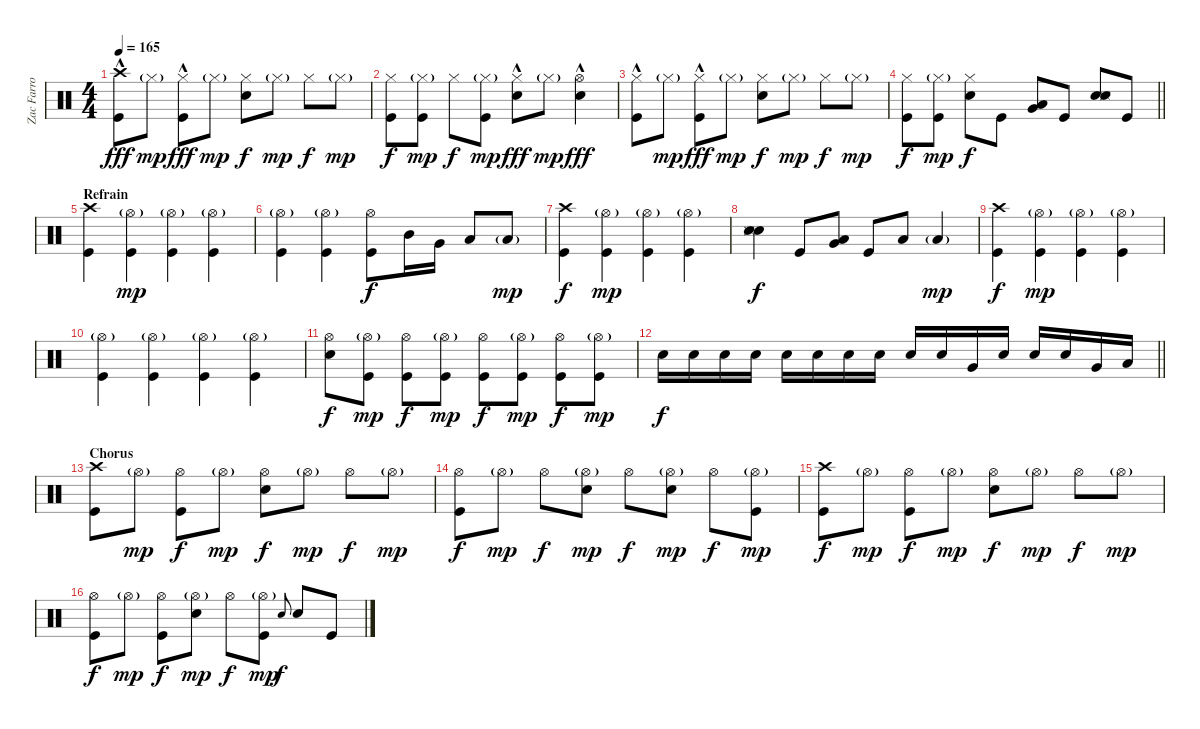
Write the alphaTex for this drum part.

\track ("Zac Farro (Drums)" "Zac Farro ") {instrument percussion}
\staff {score}
\articulation defaults
\ts (4 4)
\tempo 165
\clef neutral
\ks c
("Crash high (hit)" "Kick (hit)"{hac}).8{dy fff} "Hi-Hat (closed)"{g}.8{dy mp} ("Hi-Hat (closed)" "Kick (hit)"{hac}).8{dy fff} "Hi-Hat (closed)"{g}.8{dy mp} ("Hi-Hat (closed)" "Electric Snare (hit)").8{dy f} "Hi-Hat (closed)"{g}.8{dy mp} "Hi-Hat (closed)".8{dy f} "Hi-Hat (closed)"{g}.8{dy mp} |
("Hi-Hat (closed)" "Kick (hit)").8{dy f} ("Hi-Hat (closed)"{g} "Kick (hit)").8{dy mp} "Hi-Hat (closed)".8{dy f} ("Hi-Hat (closed)"{g} "Kick (hit)").8{dy mp} ("Hi-Hat (closed)" "Electric Snare (hit)"{hac}).8{dy fff} "Hi-Hat (closed)"{g}.8{dy mp} ("Hi-Hat (open)"{hac} "Electric Snare (hit)"{hac}).4{dy fff} |
("Hi-Hat (closed)" "Kick (hit)"{hac}).8 "Hi-Hat (closed)"{g}.8{dy mp} ("Hi-Hat (closed)" "Kick (hit)"{hac}).8{dy fff} "Hi-Hat (closed)"{g}.8{dy mp} ("Hi-Hat (closed)" "Electric Snare (hit)").8{dy f} "Hi-Hat (closed)"{g}.8{dy mp} "Hi-Hat (closed)".8{dy f} "Hi-Hat (closed)"{g}.8{dy mp} |
\barLineRight lightlight
("Hi-Hat (closed)" "Kick (hit)").8{dy f} ("Hi-Hat (closed)"{g} "Kick (hit)").8{dy mp} ("Hi-Hat (closed)" "Electric Snare (hit)").8{dy f} "Kick (hit)".8 ("Very Low Tom (hit)" "Low Floor Tom (hit)").8 "Kick (hit)".8 ("Snare (hit) 2" "Snare (side stick) 3" "Electric Snare (hit)").8 "Kick (hit)".8 |
\section ("" "Refrain")
("Crash high (hit)" "Kick (hit)").4 ("Hi-Hat (open)"{g} "Kick (hit)").4{dy mp} ("Hi-Hat (open)"{g} "Kick (hit)").4 ("Hi-Hat (open)"{g} "Kick (hit)").4 |
("Hi-Hat (open)"{g} "Kick (hit)").4 ("Hi-Hat (open)"{g} "Kick (hit)").4 ("Hi-Hat (open)" "Kick (hit)").8{dy f} "Mid Tom (hit)".16 "Very Low Tom (hit)".16 "Low Floor Tom (hit)".8 "Low Floor Tom (hit)"{g}.8{dy mp} |
("Crash high (hit)" "Kick (hit)").4{dy f} ("Hi-Hat (open)"{g} "Kick (hit)").4{dy mp} ("Hi-Hat (open)"{g} "Kick (hit)").4 ("Hi-Hat (open)"{g} "Kick (hit)").4 |
("Snare (hit) 2" "Snare (side stick) 3" "Electric Snare (hit)").4{dy f} "Kick (hit)".8 ("Very Low Tom (hit)" "Low Floor Tom (hit)").8 "Kick (hit)".8 "Low Floor Tom (hit)".8 "Low Floor Tom (hit)"{g}.4{dy mp} |
("Crash high (hit)" "Kick (hit)").4{dy f} ("Hi-Hat (open)"{g} "Kick (hit)").4{dy mp} ("Hi-Hat (open)"{g} "Kick (hit)").4 ("Hi-Hat (open)"{g} "Kick (hit)").4 |
("Hi-Hat (open)"{g} "Kick (hit)").4 ("Hi-Hat (open)"{g} "Kick (hit)").4 ("Hi-Hat (open)"{g} "Kick (hit)").4 ("Hi-Hat (open)"{g} "Kick (hit)").4 |
("Hi-Hat (open)" "Electric Snare (hit)").8{dy f} ("Hi-Hat (open)"{g} "Kick (hit)").8{dy mp} ("Hi-Hat (open)" "Kick (hit)").8{dy f} ("Hi-Hat (open)"{g} "Kick (hit)").8{dy mp} ("Hi-Hat (open)" "Kick (hit)").8{dy f} ("Hi-Hat (open)"{g} "Kick (hit)").8{dy mp} ("Hi-Hat (open)" "Kick (hit)").8{dy f} ("Hi-Hat (open)"{g} "Kick (hit)").8{dy mp} |
\barLineRight lightlight "Electric Snare (hit)".16{dy f} "Electric Snare (hit)".16 "Electric Snare (hit)".16 "Electric Snare (hit)".16 "Electric Snare (hit)".16 "Electric Snare (hit)".16 "Electric Snare (hit)".16 "Electric Snare (hit)".16 "Electric Snare (hit)".16 "Electric Snare (hit)".16 "Very Low Tom (hit)".16 "Electric Snare (hit)".16 "Electric Snare (hit)".16 "Electric Snare (hit)".16 "Very Low Tom (hit)".16 "Low Floor Tom (hit)".16
|
\section ("" "Chorus")
("Crash high (hit)" "Kick (hit)").8 "Hi-Hat (open)"{g}.8{dy mp} ("Hi-Hat (open)" "Kick (hit)").8{dy f} "Hi-Hat (open)"{g}.8{dy mp} ("Hi-Hat (open)" "Electric Snare (hit)").8{dy f} "Hi-Hat (open)"{g}.8{dy mp} "Hi-Hat (open)".8{dy f} "Hi-Hat (open)"{g}.8{dy mp} |
("Hi-Hat (open)" "Kick (hit)").8{dy f} "Hi-Hat (open)"{g}.8{dy mp} "Hi-Hat (open)".8{dy f} ("Hi-Hat (open)"{g} "Electric Snare (hit)").8{dy mp} "Hi-Hat (open)".8{dy f} ("Hi-Hat (open)"{g} "Electric Snare (hit)").8{dy mp} "Hi-Hat (open)".8{dy f} ("Hi-Hat (open)"{g} "Kick (hit)").8{dy mp} |
("Crash high (hit)" "Kick (hit)").8{dy f} "Hi-Hat (open)"{g}.8{dy mp} ("Hi-Hat (open)" "Kick (hit)").8{dy f} "Hi-Hat (open)"{g}.8{dy mp} ("Hi-Hat (open)" "Electric Snare (hit)").8{dy f} "Hi-Hat (open)"{g}.8{dy mp} "Hi-Hat (open)".8{dy f} "Hi-Hat (open)"{g}.8{dy mp} |
("Hi-Hat (open)" "Kick (hit)").8{dy f} "Hi-Hat (open)"{g}.8{dy mp} ("Hi-Hat (open)" "Kick (hit)").8{dy f} ("Hi-Hat (open)"{g} "Electric Snare (hit)").8{dy mp} "Hi-Hat (open)".8{dy f} ("Hi-Hat (open)"{g} "Kick (hit)").8{dy mp} "Electric Snare (hit)".8{gr onbeat dy f} "Electric Snare (hit)".8 "Kick (hit)".8
